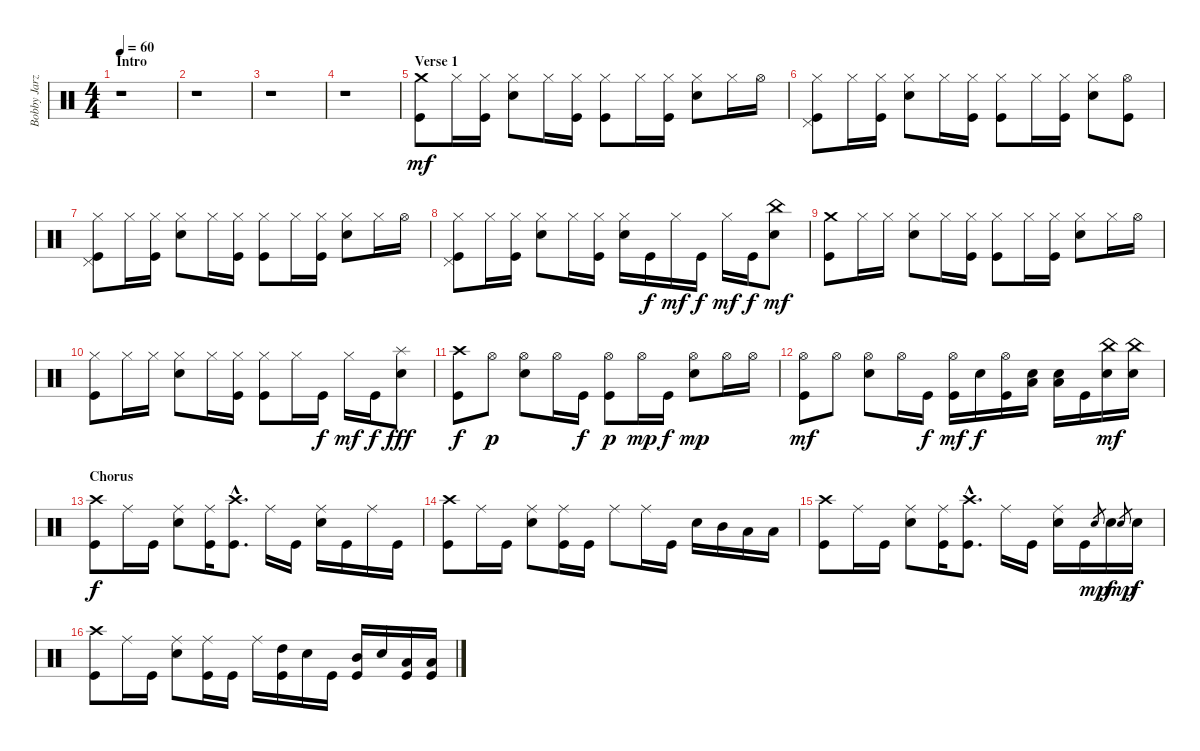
\track ("Bobby Jarzombek" "Bobby Jarz") {instrument percussion}
\staff {score}
\articulation defaults
\ts (4 4)
\section ("" "Intro")
\tempo 60
\clef neutral
\ks c
r.1{dy mf} |
r.1 |
r.1 |
r.1 |
\section ("" "Verse 1")
("Crash medium (hit)" "Kick (hit)").8 "Hi-Hat (closed)".16 ("Hi-Hat (closed)" "Kick (hit)").16 ("Hi-Hat (closed)" "Electric Snare (hit)").8 "Hi-Hat (closed)".16 ("Hi-Hat (closed)" "Kick (hit)").16 ("Hi-Hat (closed)" "Kick (hit)").8 "Hi-Hat (closed)".16 ("Hi-Hat (closed)" "Kick (hit)").16 ("Hi-Hat (closed)" "Electric Snare (hit)").8 "Hi-Hat (closed)".16 "Hi-Hat (open)".16 |
("Hi-Hat (closed)" "Pedal Hi-Hat (hit)" "Kick (hit)").8 "Hi-Hat (closed)".16 ("Hi-Hat (closed)" "Kick (hit)").16 ("Hi-Hat (closed)" "Electric Snare (hit)").8 "Hi-Hat (closed)".16 ("Hi-Hat (closed)" "Kick (hit)").16 ("Hi-Hat (closed)" "Kick (hit)").8 "Hi-Hat (closed)".16 ("Hi-Hat (closed)" "Kick (hit)").16 ("Hi-Hat (closed)" "Electric Snare (hit)").8 ("Hi-Hat (open)" "Kick (hit)").8 |
("Hi-Hat (closed)" "Pedal Hi-Hat (hit)" "Kick (hit)").8 "Hi-Hat (closed)".16 ("Hi-Hat (closed)" "Kick (hit)").16 ("Hi-Hat (closed)" "Electric Snare (hit)").8 "Hi-Hat (closed)".16 ("Hi-Hat (closed)" "Kick (hit)").16 ("Hi-Hat (closed)" "Kick (hit)").8 "Hi-Hat (closed)".16 ("Hi-Hat (closed)" "Kick (hit)").16 ("Hi-Hat (closed)" "Electric Snare (hit)").8 "Hi-Hat (closed)".16 "Hi-Hat (open)".16 |
("Hi-Hat (closed)" "Pedal Hi-Hat (hit)" "Kick (hit)").8 "Hi-Hat (closed)".16 ("Hi-Hat (closed)" "Kick (hit)").16 ("Hi-Hat (closed)" "Electric Snare (hit)").8 "Hi-Hat (closed)".16 ("Hi-Hat (closed)" "Kick (hit)").16 ("Hi-Hat (closed)" "Electric Snare (hit)").16 "Kick (hit)".16{dy f} "Hi-Hat (closed)".16{dy mf} "Kick (hit)".16{dy f} "Hi-Hat (closed)".16{dy mf} "Kick (hit)".16{dy f} ("China (hit)" "Electric Snare (hit)").8{dy mf} |
("Crash medium (hit)" "Kick (hit)").8 "Hi-Hat (closed)".16 "Hi-Hat (closed)".16 ("Hi-Hat (closed)" "Electric Snare (hit)").8 "Hi-Hat (closed)".16 ("Hi-Hat (closed)" "Kick (hit)").16 ("Hi-Hat (closed)" "Kick (hit)").8 "Hi-Hat (closed)".16 ("Hi-Hat (closed)" "Kick (hit)").16 ("Hi-Hat (closed)" "Electric Snare (hit)").8 "Hi-Hat (closed)".16 "Hi-Hat (open)".16 |
("Hi-Hat (closed)" "Kick (hit)").8 "Hi-Hat (closed)".16 "Hi-Hat (closed)".16 ("Hi-Hat (closed)" "Electric Snare (hit)").8 "Hi-Hat (closed)".16 ("Hi-Hat (closed)" "Kick (hit)").16 ("Hi-Hat (closed)" "Kick (hit)").8 "Hi-Hat (closed)".16 "Kick (hit)".16{dy f} "Hi-Hat (closed)".16{dy mf} "Kick (hit)".16{dy f} ("Splash (hit)" "Electric Snare (hit)").8{dy fff} |
("Crash high (hit)" "Kick (hit)").8{dy f} "Hi-Hat (open)".8{dy p} ("Hi-Hat (open)" "Electric Snare (hit)").8 "Hi-Hat (open)".16 "Kick (hit)".16{dy f} ("Hi-Hat (open)" "Kick (hit)").8{dy p} "Hi-Hat (open)".16{dy mp} "Kick (hit)".16{dy f} ("Hi-Hat (open)" "Electric Snare (hit)").8{dy mp} "Hi-Hat (open)".16 "Hi-Hat (open)".16 |
("Hi-Hat (open)" "Kick (hit)").8{dy mf} "Hi-Hat (open)".8 ("Hi-Hat (open)" "Electric Snare (hit)").8 "Hi-Hat (open)".16 "Kick (hit)".16{dy f} ("Hi-Hat (open)" "Kick (hit)").16{dy mf} "Electric Snare (hit)".16{dy f} ("Hi-Hat (open)" "Kick (hit)").16 ("Low Tom (hit)" "Electric Snare (hit)").16 ("Low Tom (hit)" "Electric Snare (hit)").16 "Kick (hit)".16 ("China (hit)" "Electric Snare (hit)").16{dy mf} ("China (hit)" "Electric Snare (hit)").16 |
\section ("" "Chorus")
("Crash high (hit)" "Kick (hit)").8{dy f} "Ride (middle)".16 "Kick (hit)".16 ("Ride (middle)" "Electric Snare (hit)").8 ("Ride (middle)" "Kick (hit)").16 ("Crash high (hit)"{hac} "Kick (hit)"{hac}).8{d} "Ride (middle)".16 "Kick (hit)".16 ("Ride (middle)" "Electric Snare (hit)").16 "Kick (hit)".16 "Ride (middle)".16 "Kick (hit)".16 |
("Crash high (hit)" "Kick (hit)").8 "Ride (middle)".16 "Kick (hit)".16 ("Ride (middle)" "Electric Snare (hit)").8 ("Ride (middle)" "Kick (hit)").16 "Kick (hit)".16 "Ride (middle)".8 "Ride (middle)".16 "Kick (hit)".16 "Electric Snare (hit)".16 "Mid Tom (hit)".16 "Low Tom (hit)".16 "Low Tom (hit)".16 |
("Crash high (hit)" "Kick (hit)").8 "Ride (middle)".16 "Kick (hit)".16 ("Ride (middle)" "Electric Snare (hit)").8 ("Ride (middle)" "Kick (hit)").16 ("Crash high (hit)"{hac} "Kick (hit)"{hac}).8{d} "Ride (middle)".16 "Kick (hit)".16 ("Ride (middle)" "Electric Snare (hit)").16 "Kick (hit)".16 "Electric Snare (hit)".8{gr dy mp} "Electric Snare (hit)".16{dy f} "Electric Snare (hit)".8{gr dy mp} "Electric Snare (hit)".16{dy f} |
("Crash high (hit)" "Kick (hit)").8 "Ride (middle)".16 "Kick (hit)".16 ("Ride (middle)" "Electric Snare (hit)").8 ("Ride (middle)" "Kick (hit)").16 "Kick (hit)".16 "Ride (middle)".16 ("High Tom (hit)" "Kick (hit)").16 "Electric Snare (hit)".16 "Kick (hit)".16 ("Mid Tom (hit)" "Kick (hit)").16 "Electric Snare (hit)".16 ("Low Tom (hit)" "Kick (hit)").16 ("Low Tom (hit)" "Kick (hit)").16
